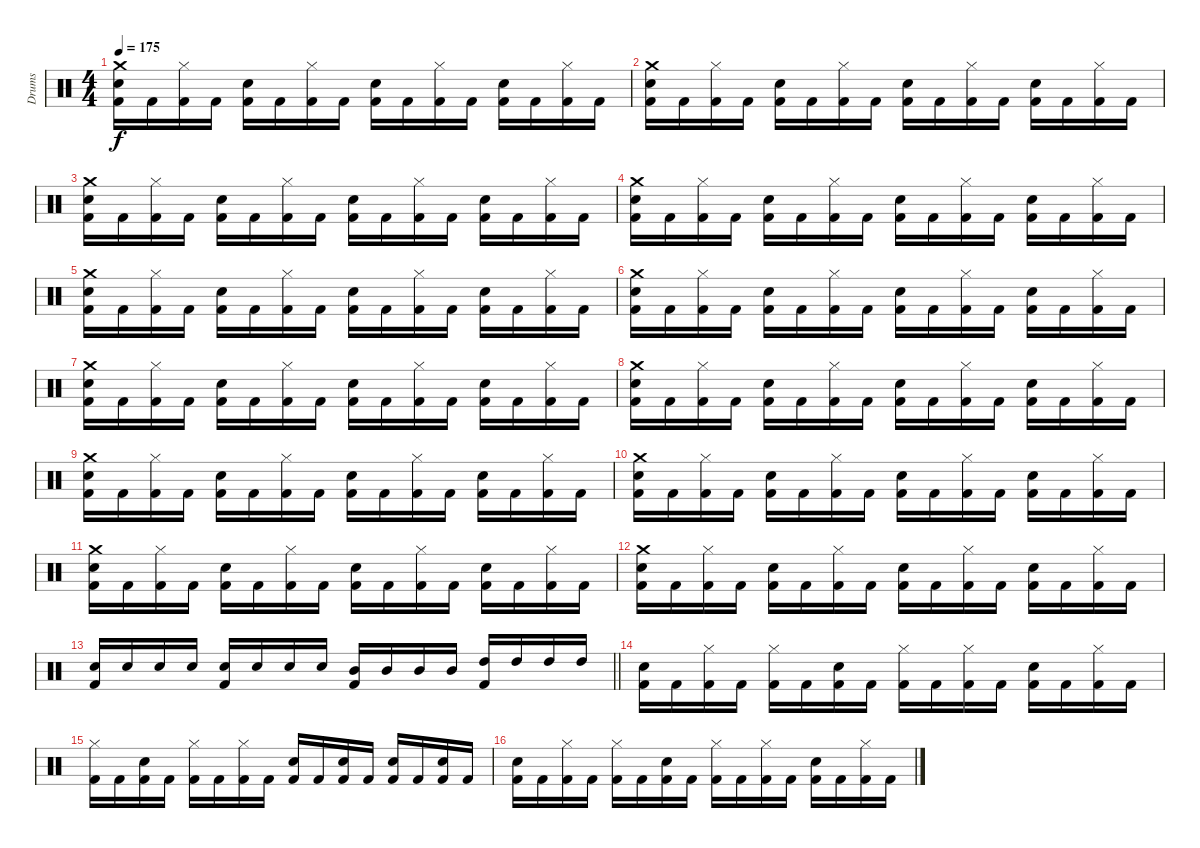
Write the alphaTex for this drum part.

\track ("Drums" "Drums") {instrument percussion}
\staff {score}
\articulation defaults
\ts (4 4)
\tempo 175
\clef neutral
\ks c
("Kick (hit) 2" "Snare (hit) 2" "Crash medium (hit)").16{dy f} "Kick (hit) 2".16 ("Kick (hit) 2" "Hi-Hat (closed)").16 "Kick (hit) 2".16 ("Kick (hit) 2" "Snare (hit) 2").16 "Kick (hit) 2".16 ("Kick (hit) 2" "Hi-Hat (closed)").16 "Kick (hit) 2".16 ("Kick (hit) 2" "Snare (hit) 2").16 "Kick (hit) 2".16 ("Kick (hit) 2" "Hi-Hat (closed)").16 "Kick (hit) 2".16 ("Kick (hit) 2" "Snare (hit) 2").16 "Kick (hit) 2".16 ("Kick (hit) 2" "Hi-Hat (closed)").16 "Kick (hit) 2".16 |
("Kick (hit) 2" "Snare (hit) 2" "Crash medium (hit)").16 "Kick (hit) 2".16 ("Kick (hit) 2" "Hi-Hat (closed)").16 "Kick (hit) 2".16 ("Kick (hit) 2" "Snare (hit) 2").16 "Kick (hit) 2".16 ("Kick (hit) 2" "Hi-Hat (closed)").16 "Kick (hit) 2".16 ("Kick (hit) 2" "Snare (hit) 2").16 "Kick (hit) 2".16 ("Kick (hit) 2" "Hi-Hat (closed)").16 "Kick (hit) 2".16 ("Kick (hit) 2" "Snare (hit) 2").16 "Kick (hit) 2".16 ("Kick (hit) 2" "Hi-Hat (closed)").16 "Kick (hit) 2".16 |
("Kick (hit) 2" "Snare (hit) 2" "Crash medium (hit)").16 "Kick (hit) 2".16 ("Kick (hit) 2" "Hi-Hat (closed)").16 "Kick (hit) 2".16 ("Kick (hit) 2" "Snare (hit) 2").16 "Kick (hit) 2".16 ("Kick (hit) 2" "Hi-Hat (closed)").16 "Kick (hit) 2".16 ("Kick (hit) 2" "Snare (hit) 2").16 "Kick (hit) 2".16 ("Kick (hit) 2" "Hi-Hat (closed)").16 "Kick (hit) 2".16 ("Kick (hit) 2" "Snare (hit) 2").16 "Kick (hit) 2".16 ("Kick (hit) 2" "Hi-Hat (closed)").16 "Kick (hit) 2".16 |
("Kick (hit) 2" "Snare (hit) 2" "Crash medium (hit)").16 "Kick (hit) 2".16 ("Kick (hit) 2" "Hi-Hat (closed)").16 "Kick (hit) 2".16 ("Kick (hit) 2" "Snare (hit) 2").16 "Kick (hit) 2".16 ("Kick (hit) 2" "Hi-Hat (closed)").16 "Kick (hit) 2".16 ("Kick (hit) 2" "Snare (hit) 2").16 "Kick (hit) 2".16 ("Kick (hit) 2" "Hi-Hat (closed)").16 "Kick (hit) 2".16 ("Kick (hit) 2" "Snare (hit) 2").16 "Kick (hit) 2".16 ("Kick (hit) 2" "Hi-Hat (closed)").16 "Kick (hit) 2".16 |
("Kick (hit) 2" "Snare (hit) 2" "Crash medium (hit)").16 "Kick (hit) 2".16 ("Kick (hit) 2" "Hi-Hat (closed)").16 "Kick (hit) 2".16 ("Kick (hit) 2" "Snare (hit) 2").16 "Kick (hit) 2".16 ("Kick (hit) 2" "Hi-Hat (closed)").16 "Kick (hit) 2".16 ("Kick (hit) 2" "Snare (hit) 2").16 "Kick (hit) 2".16 ("Kick (hit) 2" "Hi-Hat (closed)").16 "Kick (hit) 2".16 ("Kick (hit) 2" "Snare (hit) 2").16 "Kick (hit) 2".16 ("Kick (hit) 2" "Hi-Hat (closed)").16 "Kick (hit) 2".16 |
("Kick (hit) 2" "Snare (hit) 2" "Crash medium (hit)").16 "Kick (hit) 2".16 ("Kick (hit) 2" "Hi-Hat (closed)").16 "Kick (hit) 2".16 ("Kick (hit) 2" "Snare (hit) 2").16 "Kick (hit) 2".16 ("Kick (hit) 2" "Hi-Hat (closed)").16 "Kick (hit) 2".16 ("Kick (hit) 2" "Snare (hit) 2").16 "Kick (hit) 2".16 ("Kick (hit) 2" "Hi-Hat (closed)").16 "Kick (hit) 2".16 ("Kick (hit) 2" "Snare (hit) 2").16 "Kick (hit) 2".16 ("Kick (hit) 2" "Hi-Hat (closed)").16 "Kick (hit) 2".16 |
("Kick (hit) 2" "Snare (hit) 2" "Crash medium (hit)").16 "Kick (hit) 2".16 ("Kick (hit) 2" "Hi-Hat (closed)").16 "Kick (hit) 2".16 ("Kick (hit) 2" "Snare (hit) 2").16 "Kick (hit) 2".16 ("Kick (hit) 2" "Hi-Hat (closed)").16 "Kick (hit) 2".16 ("Kick (hit) 2" "Snare (hit) 2").16 "Kick (hit) 2".16 ("Kick (hit) 2" "Hi-Hat (closed)").16 "Kick (hit) 2".16 ("Kick (hit) 2" "Snare (hit) 2").16 "Kick (hit) 2".16 ("Kick (hit) 2" "Hi-Hat (closed)").16 "Kick (hit) 2".16 |
("Kick (hit) 2" "Snare (hit) 2" "Crash medium (hit)").16 "Kick (hit) 2".16 ("Kick (hit) 2" "Hi-Hat (closed)").16 "Kick (hit) 2".16 ("Kick (hit) 2" "Snare (hit) 2").16 "Kick (hit) 2".16 ("Kick (hit) 2" "Hi-Hat (closed)").16 "Kick (hit) 2".16 ("Kick (hit) 2" "Snare (hit) 2").16 "Kick (hit) 2".16 ("Kick (hit) 2" "Hi-Hat (closed)").16 "Kick (hit) 2".16 ("Kick (hit) 2" "Snare (hit) 2").16 "Kick (hit) 2".16 ("Kick (hit) 2" "Hi-Hat (closed)").16 "Kick (hit) 2".16 |
("Kick (hit) 2" "Snare (hit) 2" "Crash medium (hit)").16 "Kick (hit) 2".16 ("Kick (hit) 2" "Hi-Hat (closed)").16 "Kick (hit) 2".16 ("Kick (hit) 2" "Snare (hit) 2").16 "Kick (hit) 2".16 ("Kick (hit) 2" "Hi-Hat (closed)").16 "Kick (hit) 2".16 ("Kick (hit) 2" "Snare (hit) 2").16 "Kick (hit) 2".16 ("Kick (hit) 2" "Hi-Hat (closed)").16 "Kick (hit) 2".16 ("Kick (hit) 2" "Snare (hit) 2").16 "Kick (hit) 2".16 ("Kick (hit) 2" "Hi-Hat (closed)").16 "Kick (hit) 2".16 |
("Kick (hit) 2" "Snare (hit) 2" "Crash medium (hit)").16 "Kick (hit) 2".16 ("Kick (hit) 2" "Hi-Hat (closed)").16 "Kick (hit) 2".16 ("Kick (hit) 2" "Snare (hit) 2").16 "Kick (hit) 2".16 ("Kick (hit) 2" "Hi-Hat (closed)").16 "Kick (hit) 2".16 ("Kick (hit) 2" "Snare (hit) 2").16 "Kick (hit) 2".16 ("Kick (hit) 2" "Hi-Hat (closed)").16 "Kick (hit) 2".16 ("Kick (hit) 2" "Snare (hit) 2").16 "Kick (hit) 2".16 ("Kick (hit) 2" "Hi-Hat (closed)").16 "Kick (hit) 2".16 |
("Kick (hit) 2" "Snare (hit) 2" "Crash medium (hit)").16 "Kick (hit) 2".16 ("Kick (hit) 2" "Hi-Hat (closed)").16 "Kick (hit) 2".16 ("Kick (hit) 2" "Snare (hit) 2").16 "Kick (hit) 2".16 ("Kick (hit) 2" "Hi-Hat (closed)").16 "Kick (hit) 2".16 ("Kick (hit) 2" "Snare (hit) 2").16 "Kick (hit) 2".16 ("Kick (hit) 2" "Hi-Hat (closed)").16 "Kick (hit) 2".16 ("Kick (hit) 2" "Snare (hit) 2").16 "Kick (hit) 2".16 ("Kick (hit) 2" "Hi-Hat (closed)").16 "Kick (hit) 2".16 |
("Kick (hit) 2" "Snare (hit) 2" "Crash medium (hit)").16 "Kick (hit) 2".16 ("Kick (hit) 2" "Hi-Hat (closed)").16 "Kick (hit) 2".16 ("Kick (hit) 2" "Snare (hit) 2").16 "Kick (hit) 2".16 ("Kick (hit) 2" "Hi-Hat (closed)").16 "Kick (hit) 2".16 ("Kick (hit) 2" "Snare (hit) 2").16 "Kick (hit) 2".16 ("Kick (hit) 2" "Hi-Hat (closed)").16 "Kick (hit) 2".16 ("Kick (hit) 2" "Snare (hit) 2").16 "Kick (hit) 2".16 ("Kick (hit) 2" "Hi-Hat (closed)").16 "Kick (hit) 2".16 |
\barLineRight lightlight
("Kick (hit) 2" "Snare (hit) 2").16 "Snare (hit) 2".16 "Snare (hit) 2".16 "Snare (hit) 2".16 ("Kick (hit) 2" "Electric Snare (hit)").16 "Electric Snare (hit)".16 "Electric Snare (hit)".16 "Electric Snare (hit)".16 ("Kick (hit) 2" "Mid Tom (hit)").16 "Mid Tom (hit)".16 "Mid Tom (hit)".16 "Mid Tom (hit)".16 ("Kick (hit) 2" "High Tom (hit)").16 "High Tom (hit)".16 "High Tom (hit)".16 "High Tom (hit)".16 |
("Kick (hit) 2" "Snare (hit) 2").16 "Kick (hit) 2".16 ("Kick (hit) 2" "Hi-Hat (closed)").16 "Kick (hit) 2".16 ("Kick (hit) 2" "Hi-Hat (closed)").16 "Kick (hit) 2".16 ("Kick (hit) 2" "Snare (hit) 2").16 "Kick (hit) 2".16 ("Kick (hit) 2" "Hi-Hat (closed)").16 "Kick (hit) 2".16 ("Kick (hit) 2" "Hi-Hat (closed)").16 "Kick (hit) 2".16 ("Kick (hit) 2" "Snare (hit) 2").16 "Kick (hit) 2".16 ("Kick (hit) 2" "Hi-Hat (closed)").16 "Kick (hit) 2".16 |
("Kick (hit) 2" "Hi-Hat (closed)").16 "Kick (hit) 2".16 ("Kick (hit) 2" "Snare (hit) 2").16 "Kick (hit) 2".16 ("Kick (hit) 2" "Hi-Hat (closed)").16 "Kick (hit) 2".16 ("Kick (hit) 2" "Hi-Hat (closed)").16 "Kick (hit) 2".16 ("Kick (hit) 2" "Snare (hit) 2").16 "Kick (hit) 2".16 ("Kick (hit) 2" "Snare (hit) 2").16 "Kick (hit) 2".16 ("Kick (hit) 2" "Snare (hit) 2").16 "Kick (hit) 2".16 ("Kick (hit) 2" "Snare (hit) 2").16 "Kick (hit) 2".16 |
("Kick (hit) 2" "Snare (hit) 2").16 "Kick (hit) 2".16 ("Kick (hit) 2" "Hi-Hat (closed)").16 "Kick (hit) 2".16 ("Kick (hit) 2" "Hi-Hat (closed)").16 "Kick (hit) 2".16 ("Kick (hit) 2" "Snare (hit) 2").16 "Kick (hit) 2".16 ("Kick (hit) 2" "Hi-Hat (closed)").16 "Kick (hit) 2".16 ("Kick (hit) 2" "Hi-Hat (closed)").16 "Kick (hit) 2".16 ("Kick (hit) 2" "Snare (hit) 2").16 "Kick (hit) 2".16 ("Kick (hit) 2" "Hi-Hat (closed)").16 "Kick (hit) 2".16
